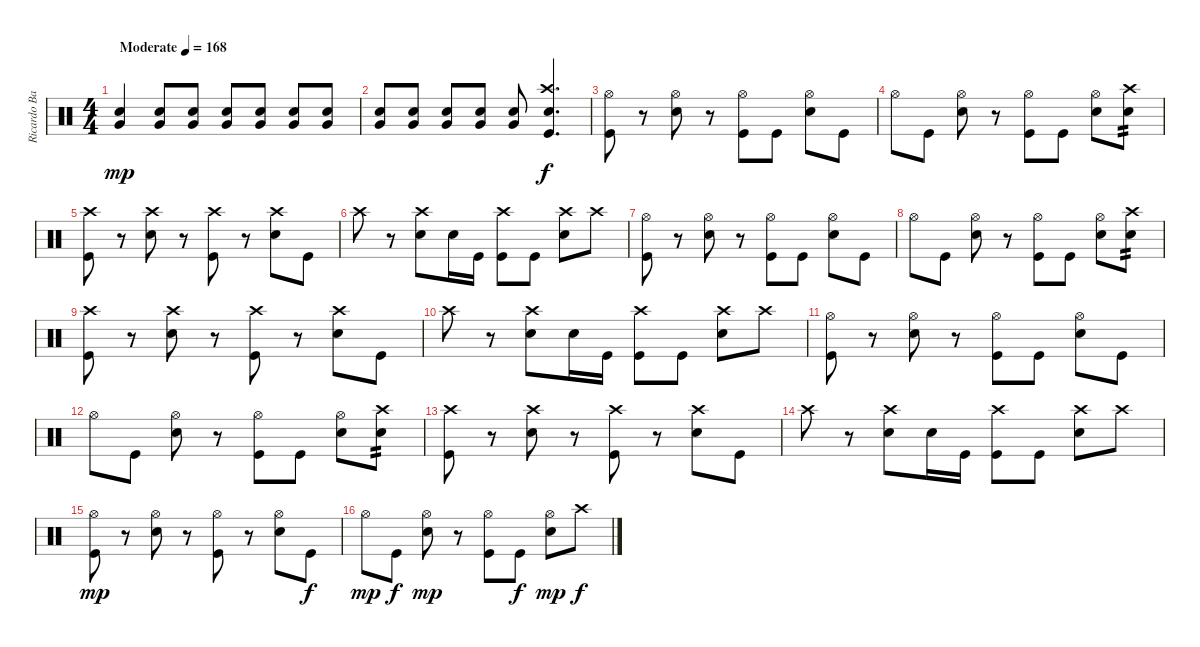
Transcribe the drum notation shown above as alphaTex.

\track ("Ricardo Barrenechea" "Ricardo Ba") {instrument percussion}
\staff {score}
\articulation defaults
\ts (4 4)
\tempo (168 "Moderate")
\clef neutral
\ks c
("Very Low Tom (hit)" "Snare (hit) 2").4{dy mp} ("Very Low Tom (hit)" "Snare (hit) 2").8 ("Very Low Tom (hit)" "Snare (hit) 2").8 ("Very Low Tom (hit)" "Snare (hit) 2").8 ("Very Low Tom (hit)" "Snare (hit) 2").8 ("Very Low Tom (hit)" "Snare (hit) 2").8 ("Very Low Tom (hit)" "Snare (hit) 2").8 |
("Very Low Tom (hit)" "Snare (hit) 2").8 ("Very Low Tom (hit)" "Snare (hit) 2").8 ("Very Low Tom (hit)" "Snare (hit) 2").8 ("Very Low Tom (hit)" "Snare (hit) 2").8 ("Very Low Tom (hit)" "Snare (hit) 2").8 ("Crash high (hit)" "Snare (hit) 2" "Kick (hit)").4{d dy f} |
("Hi-Hat (open)" "Kick (hit)").8 r.8 ("Hi-Hat (open)" "Snare (hit) 2").8 r.8 ("Hi-Hat (open)" "Kick (hit)").8 "Kick (hit)".8 ("Hi-Hat (open)" "Snare (hit) 2").8 "Kick (hit)".8 |
"Hi-Hat (open)".8 "Kick (hit)".8 ("Hi-Hat (open)" "Snare (hit) 2").8 r.8 ("Hi-Hat (open)" "Kick (hit)").8 "Kick (hit)".8 ("Hi-Hat (open)" "Snare (hit) 2").8 ("Crash high (hit)" "Snare (hit) 2").8{tp 2} |
("Crash high (hit)" "Kick (hit)").8 r.8 ("Crash high (hit)" "Snare (hit) 2").8 r.8 ("Crash high (hit)" "Kick (hit)").8 r.8 ("Crash high (hit)" "Snare (hit) 2").8 "Kick (hit)".8 |
"Crash high (hit)".8 r.8 ("Crash high (hit)" "Snare (hit) 2").8 "Snare (hit) 2".16 "Kick (hit)".16 ("Crash high (hit)" "Kick (hit)").8 "Kick (hit)".8 ("Crash high (hit)" "Snare (hit) 2").8 "Crash high (hit)".8 |
("Hi-Hat (open)" "Kick (hit)").8 r.8 ("Hi-Hat (open)" "Snare (hit) 2").8 r.8 ("Hi-Hat (open)" "Kick (hit)").8 "Kick (hit)".8 ("Hi-Hat (open)" "Snare (hit) 2").8 "Kick (hit)".8 |
"Hi-Hat (open)".8 "Kick (hit)".8 ("Hi-Hat (open)" "Snare (hit) 2").8 r.8 ("Hi-Hat (open)" "Kick (hit)").8 "Kick (hit)".8 ("Hi-Hat (open)" "Snare (hit) 2").8 ("Crash high (hit)" "Snare (hit) 2").8{tp 2} |
("Crash high (hit)" "Kick (hit)").8 r.8 ("Crash high (hit)" "Snare (hit) 2").8 r.8 ("Crash high (hit)" "Kick (hit)").8 r.8 ("Crash high (hit)" "Snare (hit) 2").8 "Kick (hit)".8 |
"Crash high (hit)".8 r.8 ("Crash high (hit)" "Snare (hit) 2").8 "Snare (hit) 2".16 "Kick (hit)".16 ("Crash high (hit)" "Kick (hit)").8 "Kick (hit)".8 ("Crash high (hit)" "Snare (hit) 2").8 "Crash high (hit)".8 |
("Hi-Hat (open)" "Kick (hit)").8 r.8 ("Hi-Hat (open)" "Snare (hit) 2").8 r.8 ("Hi-Hat (open)" "Kick (hit)").8 "Kick (hit)".8 ("Hi-Hat (open)" "Snare (hit) 2").8 "Kick (hit)".8 |
"Hi-Hat (open)".8 "Kick (hit)".8 ("Hi-Hat (open)" "Snare (hit) 2").8 r.8 ("Hi-Hat (open)" "Kick (hit)").8 "Kick (hit)".8 ("Hi-Hat (open)" "Snare (hit) 2").8 ("Crash high (hit)" "Snare (hit) 2").8{tp 2} |
("Crash high (hit)" "Kick (hit)").8 r.8 ("Crash high (hit)" "Snare (hit) 2").8 r.8 ("Crash high (hit)" "Kick (hit)").8 r.8 ("Crash high (hit)" "Snare (hit) 2").8 "Kick (hit)".8 |
"Crash high (hit)".8 r.8 ("Crash high (hit)" "Snare (hit) 2").8 "Snare (hit) 2".16 "Kick (hit)".16 ("Crash high (hit)" "Kick (hit)").8 "Kick (hit)".8 ("Crash high (hit)" "Snare (hit) 2").8 "Crash high (hit)".8 |
("Hi-Hat (open)" "Kick (hit)").8{dy mp} r.8 ("Hi-Hat (open)" "Snare (hit) 2").8 r.8 ("Hi-Hat (open)" "Kick (hit)").8 r.8 ("Hi-Hat (open)" "Snare (hit) 2").8 "Kick (hit)".8{dy f} |
"Hi-Hat (open)".8{dy mp} "Kick (hit)".8{dy f} ("Hi-Hat (open)" "Snare (hit) 2").8{dy mp} r.8 ("Hi-Hat (open)" "Kick (hit)").8 "Kick (hit)".8{dy f} ("Hi-Hat (open)" "Snare (hit) 2").8{dy mp} "Crash high (hit)".8{dy f}
